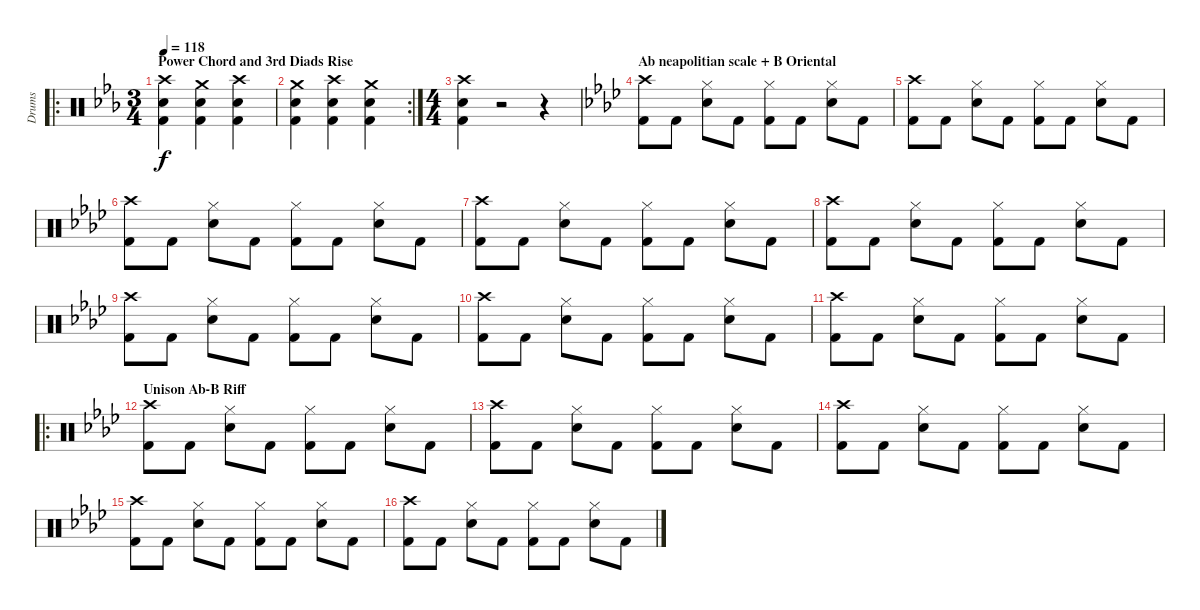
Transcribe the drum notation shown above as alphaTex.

\track ("Drums" "Drums") {instrument percussion}
\staff {score}
\articulation defaults
\ro
\ts (3 4)
\section ("" "Power Chord and 3rd Diads Rise")
\tempo 118
\clef neutral
\ks eb
("Electric Snare (hit)" "Kick (hit) 2" "Crash high (hit)").4{dy f} ("Electric Snare (hit)" "Kick (hit) 2" "Crash medium (hit)").4 ("Electric Snare (hit)" "Kick (hit) 2" "Crash high (hit)").4 |
\rc 2
("Electric Snare (hit)" "Kick (hit) 2" "Crash medium (hit)").4 ("Electric Snare (hit)" "Kick (hit) 2" "Crash high (hit)").4 ("Electric Snare (hit)" "Kick (hit) 2" "Crash medium (hit)").4 |
\ts (4 4)
("Crash high (hit)" "Electric Snare (hit)" "Kick (hit) 2").4 r.2 r.4 |
\section ("" "Ab neapolitian scale + B Oriental")
\ks ab
("Crash high (hit)" "Kick (hit) 2").8 "Kick (hit) 2".8 ("Hi-Hat (closed)" "Electric Snare (hit)").8 "Kick (hit) 2".8 ("Hi-Hat (closed)" "Kick (hit) 2").8 "Kick (hit) 2".8 ("Hi-Hat (closed)" "Electric Snare (hit)").8 "Kick (hit) 2".8 |
("Crash high (hit)" "Kick (hit) 2").8 "Kick (hit) 2".8 ("Hi-Hat (closed)" "Electric Snare (hit)").8 "Kick (hit) 2".8 ("Hi-Hat (closed)" "Kick (hit) 2").8 "Kick (hit) 2".8 ("Hi-Hat (closed)" "Electric Snare (hit)").8 "Kick (hit) 2".8 |
("Crash high (hit)" "Kick (hit) 2").8 "Kick (hit) 2".8 ("Hi-Hat (closed)" "Electric Snare (hit)").8 "Kick (hit) 2".8 ("Hi-Hat (closed)" "Kick (hit) 2").8 "Kick (hit) 2".8 ("Hi-Hat (closed)" "Electric Snare (hit)").8 "Kick (hit) 2".8 |
("Crash high (hit)" "Kick (hit) 2").8 "Kick (hit) 2".8 ("Hi-Hat (closed)" "Electric Snare (hit)").8 "Kick (hit) 2".8 ("Hi-Hat (closed)" "Kick (hit) 2").8 "Kick (hit) 2".8 ("Hi-Hat (closed)" "Electric Snare (hit)").8 "Kick (hit) 2".8 |
("Crash high (hit)" "Kick (hit) 2").8 "Kick (hit) 2".8 ("Hi-Hat (closed)" "Electric Snare (hit)").8 "Kick (hit) 2".8 ("Hi-Hat (closed)" "Kick (hit) 2").8 "Kick (hit) 2".8 ("Hi-Hat (closed)" "Electric Snare (hit)").8 "Kick (hit) 2".8 |
("Crash high (hit)" "Kick (hit) 2").8 "Kick (hit) 2".8 ("Hi-Hat (closed)" "Electric Snare (hit)").8 "Kick (hit) 2".8 ("Hi-Hat (closed)" "Kick (hit) 2").8 "Kick (hit) 2".8 ("Hi-Hat (closed)" "Electric Snare (hit)").8 "Kick (hit) 2".8 |
("Crash high (hit)" "Kick (hit) 2").8 "Kick (hit) 2".8 ("Hi-Hat (closed)" "Electric Snare (hit)").8 "Kick (hit) 2".8 ("Hi-Hat (closed)" "Kick (hit) 2").8 "Kick (hit) 2".8 ("Hi-Hat (closed)" "Electric Snare (hit)").8 "Kick (hit) 2".8 |
("Crash high (hit)" "Kick (hit) 2").8 "Kick (hit) 2".8 ("Hi-Hat (closed)" "Electric Snare (hit)").8 "Kick (hit) 2".8 ("Hi-Hat (closed)" "Kick (hit) 2").8 "Kick (hit) 2".8 ("Hi-Hat (closed)" "Electric Snare (hit)").8 "Kick (hit) 2".8 |
\ro
\section ("" "Unison Ab-B Riff")
("Crash high (hit)" "Kick (hit) 2").8 "Kick (hit) 2".8 ("Hi-Hat (closed)" "Electric Snare (hit)").8 "Kick (hit) 2".8 ("Hi-Hat (closed)" "Kick (hit) 2").8 "Kick (hit) 2".8 ("Hi-Hat (closed)" "Electric Snare (hit)").8 "Kick (hit) 2".8 |
("Crash high (hit)" "Kick (hit) 2").8 "Kick (hit) 2".8 ("Hi-Hat (closed)" "Electric Snare (hit)").8 "Kick (hit) 2".8 ("Hi-Hat (closed)" "Kick (hit) 2").8 "Kick (hit) 2".8 ("Hi-Hat (closed)" "Electric Snare (hit)").8 "Kick (hit) 2".8 |
("Crash high (hit)" "Kick (hit) 2").8 "Kick (hit) 2".8 ("Hi-Hat (closed)" "Electric Snare (hit)").8 "Kick (hit) 2".8 ("Hi-Hat (closed)" "Kick (hit) 2").8 "Kick (hit) 2".8 ("Hi-Hat (closed)" "Electric Snare (hit)").8 "Kick (hit) 2".8 |
("Crash high (hit)" "Kick (hit) 2").8 "Kick (hit) 2".8 ("Hi-Hat (closed)" "Electric Snare (hit)").8 "Kick (hit) 2".8 ("Hi-Hat (closed)" "Kick (hit) 2").8 "Kick (hit) 2".8 ("Hi-Hat (closed)" "Electric Snare (hit)").8 "Kick (hit) 2".8 |
("Crash high (hit)" "Kick (hit) 2").8 "Kick (hit) 2".8 ("Hi-Hat (closed)" "Electric Snare (hit)").8 "Kick (hit) 2".8 ("Hi-Hat (closed)" "Kick (hit) 2").8 "Kick (hit) 2".8 ("Hi-Hat (closed)" "Electric Snare (hit)").8 "Kick (hit) 2".8
